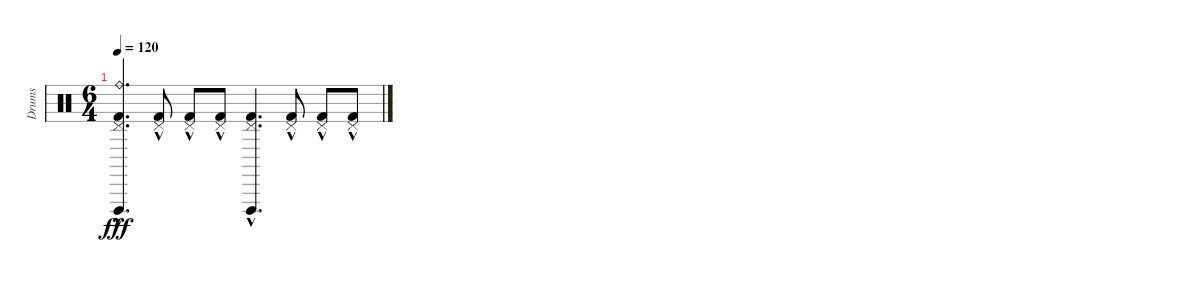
\track ("Drums" "Drums") {instrument percussion}
\staff {score}
\articulation defaults
\ts (6 4)
\tempo 120
\clef neutral
\ks c
("Pedal Hi-Hat (hit)" "Ride (bell)" "Vibraslap (hit)"{hac} "Kick (hit) 2"{hac}).4{d dy fff} ("Pedal Hi-Hat (hit)" "Kick (hit) 2"{hac}).8 ("Pedal Hi-Hat (hit)" "Kick (hit) 2"{hac}).8 ("Pedal Hi-Hat (hit)" "Kick (hit) 2"{hac}).8 ("Pedal Hi-Hat (hit)" "Vibraslap (hit)"{hac} "Kick (hit) 2"{hac}).4{d} ("Pedal Hi-Hat (hit)" "Kick (hit) 2"{hac}).8 ("Pedal Hi-Hat (hit)" "Kick (hit) 2"{hac}).8 ("Pedal Hi-Hat (hit)" "Kick (hit) 2"{hac}).8
